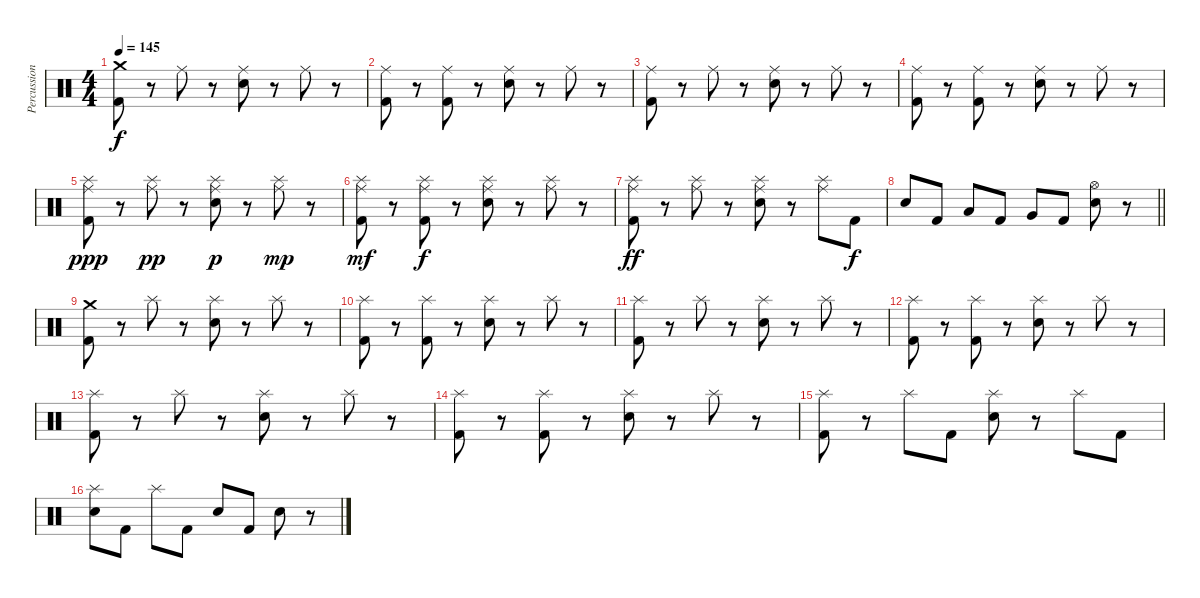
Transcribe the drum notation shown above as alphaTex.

\track ("Percussion" "Percussion") {instrument percussion}
\staff {score}
\articulation defaults
\ts (4 4)
\tempo 145
\clef neutral
\ks c
("Crash medium (hit)" "Kick (hit) 2").8{dy f} r.8 "Ride (middle)".8 r.8 ("Ride (middle)" "Electric Snare (hit)").8 r.8 "Ride (middle)".8 r.8 |
("Ride (middle)" "Kick (hit) 2").8 r.8 ("Ride (middle)" "Kick (hit) 2").8 r.8 ("Ride (middle)" "Electric Snare (hit)").8 r.8 "Ride (middle)".8 r.8 |
("Ride (middle)" "Kick (hit) 2").8 r.8 "Ride (middle)".8 r.8 ("Ride (middle)" "Electric Snare (hit)").8 r.8 "Ride (middle)".8 r.8 |
("Ride (middle)" "Kick (hit) 2").8 r.8 ("Ride (middle)" "Kick (hit) 2").8 r.8 ("Ride (middle)" "Electric Snare (hit)").8 r.8 "Ride (middle)".8 r.8 |
("Ride (middle)" "Splash (hit)" "Kick (hit) 2").8{dy ppp} r.8 ("Ride (middle)" "Splash (hit)").8{dy pp} r.8 ("Ride (middle)" "Splash (hit)" "Electric Snare (hit)").8{dy p} r.8 ("Ride (middle)" "Splash (hit)").8{dy mp} r.8 |
("Ride (middle)" "Splash (hit)" "Kick (hit) 2").8{dy mf} r.8 ("Ride (middle)" "Splash (hit)" "Kick (hit) 2").8{dy f} r.8 ("Ride (middle)" "Splash (hit)" "Electric Snare (hit)").8 r.8 ("Ride (middle)" "Splash (hit)").8 r.8 |
("Ride (middle)" "Splash (hit)" "Kick (hit) 2").8{dy ff} r.8 ("Ride (middle)" "Splash (hit)").8 r.8 ("Ride (middle)" "Splash (hit)" "Electric Snare (hit)").8 r.8 ("Ride (middle)" "Splash (hit)").8 "Kick (hit) 2".8{dy f} |
\barLineRight lightlight "Electric Snare (hit)".8 "Kick (hit) 2".8 "Low Tom (hit)".8 "Kick (hit) 2".8 "Very Low Tom (hit)".8 "Kick (hit) 2".8
("Hi-Hat (open)" "Electric Snare (hit)").8 r.8 |
\section ("" "")
("Crash medium (hit)" "Kick (hit) 2").8 r.8 "Splash (hit)".8 r.8 ("Splash (hit)" "Electric Snare (hit)").8 r.8 "Splash (hit)".8 r.8 |
("Splash (hit)" "Kick (hit) 2").8 r.8 ("Splash (hit)" "Kick (hit) 2").8 r.8 ("Splash (hit)" "Electric Snare (hit)").8 r.8 "Splash (hit)".8 r.8 |
("Splash (hit)" "Kick (hit) 2").8 r.8 "Splash (hit)".8 r.8 ("Splash (hit)" "Electric Snare (hit)").8 r.8 "Splash (hit)".8 r.8 |
("Splash (hit)" "Kick (hit) 2").8 r.8 ("Splash (hit)" "Kick (hit) 2").8 r.8 ("Splash (hit)" "Electric Snare (hit)").8 r.8 "Splash (hit)".8 r.8 |
("Splash (hit)" "Kick (hit) 2").8 r.8 "Splash (hit)".8 r.8 ("Splash (hit)" "Electric Snare (hit)").8 r.8 "Splash (hit)".8 r.8 |
("Splash (hit)" "Kick (hit) 2").8 r.8 ("Splash (hit)" "Kick (hit) 2").8 r.8 ("Splash (hit)" "Electric Snare (hit)").8 r.8 "Splash (hit)".8 r.8 |
("Splash (hit)" "Kick (hit) 2").8 r.8 "Splash (hit)".8 "Kick (hit) 2".8 ("Splash (hit)" "Electric Snare (hit)").8 r.8 "Splash (hit)".8 "Kick (hit) 2".8 |
("Splash (hit)" "Electric Snare (hit)").8 "Kick (hit) 2".8 "Splash (hit)".8 "Kick (hit) 2".8 "Electric Snare (hit)".8 "Kick (hit) 2".8 "Electric Snare (hit)".8 r.8
